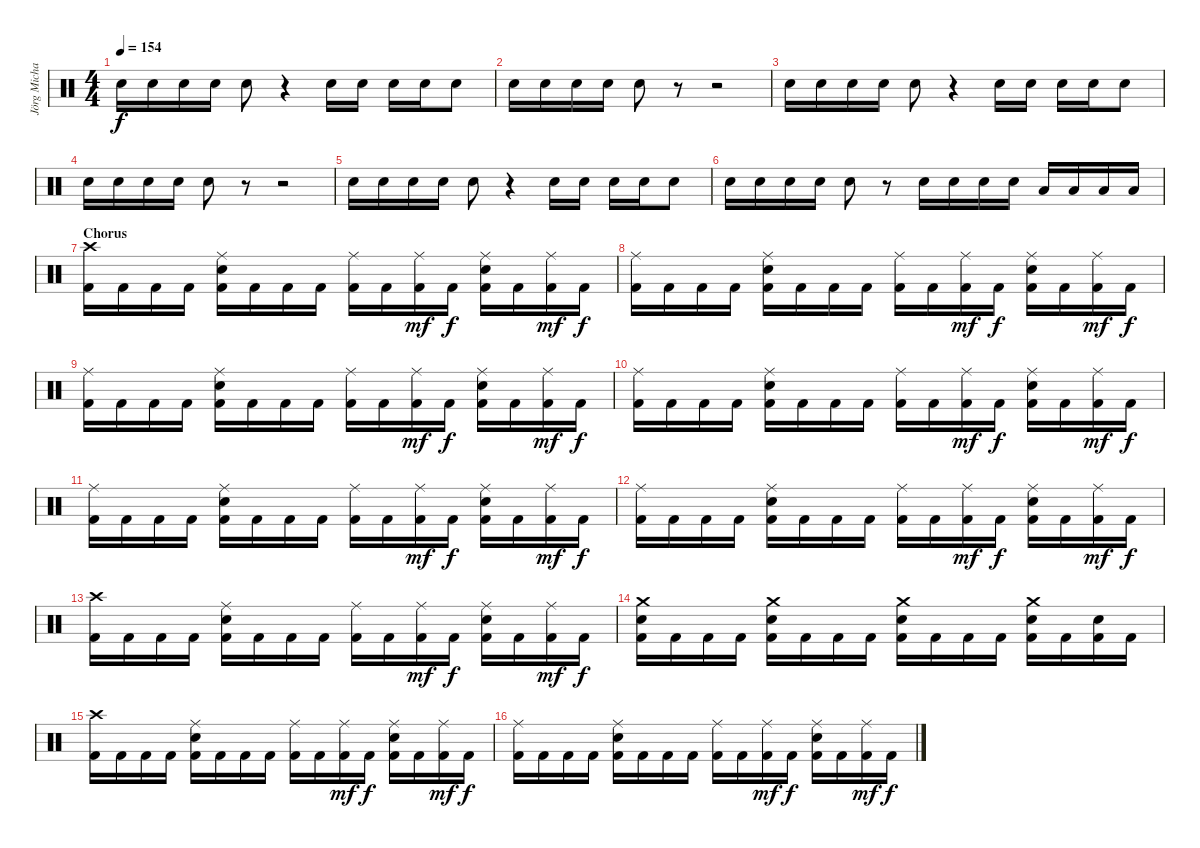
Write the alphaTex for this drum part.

\track ("Jörg Michael - Drums" "Jörg Micha") {instrument percussion}
\staff {score}
\articulation defaults
\ts (4 4)
\tempo 154
\clef neutral
\ks c "Electric Snare (hit)".16{dy f} "Electric Snare (hit)".16 "Electric Snare (hit)".16 "Electric Snare (hit)".16 "Electric Snare (hit)".8
r.4 "Electric Snare (hit)".16 "Electric Snare (hit)".16 "Electric Snare (hit)".16 "Electric Snare (hit)".16 "Electric Snare (hit)".8 |
"Electric Snare (hit)".16 "Electric Snare (hit)".16 "Electric Snare (hit)".16 "Electric Snare (hit)".16 "Electric Snare (hit)".8 r.8 r.2 |
"Electric Snare (hit)".16 "Electric Snare (hit)".16 "Electric Snare (hit)".16 "Electric Snare (hit)".16 "Electric Snare (hit)".8 r.4 "Electric Snare (hit)".16 "Electric Snare (hit)".16 "Electric Snare (hit)".16 "Electric Snare (hit)".16 "Electric Snare (hit)".8 |
"Electric Snare (hit)".16 "Electric Snare (hit)".16 "Electric Snare (hit)".16 "Electric Snare (hit)".16 "Electric Snare (hit)".8 r.8 r.2 |
"Electric Snare (hit)".16 "Electric Snare (hit)".16 "Electric Snare (hit)".16 "Electric Snare (hit)".16 "Electric Snare (hit)".8 r.4 "Electric Snare (hit)".16 "Electric Snare (hit)".16 "Electric Snare (hit)".16 "Electric Snare (hit)".16 "Electric Snare (hit)".8 |
"Electric Snare (hit)".16 "Electric Snare (hit)".16 "Electric Snare (hit)".16 "Electric Snare (hit)".16 "Electric Snare (hit)".8 r.8 "Electric Snare (hit)".16 "Electric Snare (hit)".16 "Electric Snare (hit)".16 "Electric Snare (hit)".16 "Low Tom (hit)".16 "Low Tom (hit)".16 "Low Tom (hit)".16 "Low Tom (hit)".16 |
\section ("" "Chorus")
("Crash high (hit)" "Kick (hit) 2").16 "Kick (hit) 2".16 "Kick (hit) 2".16 "Kick (hit) 2".16 ("Ride (middle)" "Electric Snare (hit)" "Kick (hit) 2").16 "Kick (hit) 2".16 "Kick (hit) 2".16 "Kick (hit) 2".16 ("Ride (middle)" "Kick (hit) 2").16 "Kick (hit) 2".16 ("Ride (middle)" "Kick (hit) 2").16{dy mf} "Kick (hit) 2".16{dy f} ("Ride (middle)" "Electric Snare (hit)" "Kick (hit) 2").16 "Kick (hit) 2".16 ("Ride (middle)" "Kick (hit) 2").16{dy mf} "Kick (hit) 2".16{dy f} |
("Ride (middle)" "Kick (hit) 2").16 "Kick (hit) 2".16 "Kick (hit) 2".16 "Kick (hit) 2".16 ("Ride (middle)" "Electric Snare (hit)" "Kick (hit) 2").16 "Kick (hit) 2".16 "Kick (hit) 2".16 "Kick (hit) 2".16 ("Ride (middle)" "Kick (hit) 2").16 "Kick (hit) 2".16 ("Ride (middle)" "Kick (hit) 2").16{dy mf} "Kick (hit) 2".16{dy f} ("Ride (middle)" "Electric Snare (hit)" "Kick (hit) 2").16 "Kick (hit) 2".16 ("Ride (middle)" "Kick (hit) 2").16{dy mf} "Kick (hit) 2".16{dy f} |
("Ride (middle)" "Kick (hit) 2").16 "Kick (hit) 2".16 "Kick (hit) 2".16 "Kick (hit) 2".16 ("Ride (middle)" "Electric Snare (hit)" "Kick (hit) 2").16 "Kick (hit) 2".16 "Kick (hit) 2".16 "Kick (hit) 2".16 ("Ride (middle)" "Kick (hit) 2").16 "Kick (hit) 2".16 ("Ride (middle)" "Kick (hit) 2").16{dy mf} "Kick (hit) 2".16{dy f} ("Ride (middle)" "Electric Snare (hit)" "Kick (hit) 2").16 "Kick (hit) 2".16 ("Ride (middle)" "Kick (hit) 2").16{dy mf} "Kick (hit) 2".16{dy f} |
("Ride (middle)" "Kick (hit) 2").16 "Kick (hit) 2".16 "Kick (hit) 2".16 "Kick (hit) 2".16 ("Ride (middle)" "Electric Snare (hit)" "Kick (hit) 2").16 "Kick (hit) 2".16 "Kick (hit) 2".16 "Kick (hit) 2".16 ("Ride (middle)" "Kick (hit) 2").16 "Kick (hit) 2".16 ("Ride (middle)" "Kick (hit) 2").16{dy mf} "Kick (hit) 2".16{dy f} ("Ride (middle)" "Electric Snare (hit)" "Kick (hit) 2").16 "Kick (hit) 2".16 ("Ride (middle)" "Kick (hit) 2").16{dy mf} "Kick (hit) 2".16{dy f} |
("Ride (middle)" "Kick (hit) 2").16 "Kick (hit) 2".16 "Kick (hit) 2".16 "Kick (hit) 2".16 ("Ride (middle)" "Electric Snare (hit)" "Kick (hit) 2").16 "Kick (hit) 2".16 "Kick (hit) 2".16 "Kick (hit) 2".16 ("Ride (middle)" "Kick (hit) 2").16 "Kick (hit) 2".16 ("Ride (middle)" "Kick (hit) 2").16{dy mf} "Kick (hit) 2".16{dy f} ("Ride (middle)" "Electric Snare (hit)" "Kick (hit) 2").16 "Kick (hit) 2".16 ("Ride (middle)" "Kick (hit) 2").16{dy mf} "Kick (hit) 2".16{dy f} |
("Ride (middle)" "Kick (hit) 2").16 "Kick (hit) 2".16 "Kick (hit) 2".16 "Kick (hit) 2".16 ("Ride (middle)" "Electric Snare (hit)" "Kick (hit) 2").16 "Kick (hit) 2".16 "Kick (hit) 2".16 "Kick (hit) 2".16 ("Ride (middle)" "Kick (hit) 2").16 "Kick (hit) 2".16 ("Ride (middle)" "Kick (hit) 2").16{dy mf} "Kick (hit) 2".16{dy f} ("Ride (middle)" "Electric Snare (hit)" "Kick (hit) 2").16 "Kick (hit) 2".16 ("Ride (middle)" "Kick (hit) 2").16{dy mf} "Kick (hit) 2".16{dy f} |
("Crash high (hit)" "Kick (hit) 2").16 "Kick (hit) 2".16 "Kick (hit) 2".16 "Kick (hit) 2".16 ("Ride (middle)" "Electric Snare (hit)" "Kick (hit) 2").16 "Kick (hit) 2".16 "Kick (hit) 2".16 "Kick (hit) 2".16 ("Ride (middle)" "Kick (hit) 2").16 "Kick (hit) 2".16 ("Ride (middle)" "Kick (hit) 2").16{dy mf} "Kick (hit) 2".16{dy f} ("Ride (middle)" "Electric Snare (hit)" "Kick (hit) 2").16 "Kick (hit) 2".16 ("Ride (middle)" "Kick (hit) 2").16{dy mf} "Kick (hit) 2".16{dy f} |
("Crash medium (hit)" "Electric Snare (hit)" "Kick (hit) 2").16 "Kick (hit) 2".16 "Kick (hit) 2".16 "Kick (hit) 2".16 ("Crash medium (hit)" "Electric Snare (hit)" "Kick (hit) 2").16 "Kick (hit) 2".16 "Kick (hit) 2".16 "Kick (hit) 2".16 ("Crash medium (hit)" "Electric Snare (hit)" "Kick (hit) 2").16 "Kick (hit) 2".16 "Kick (hit) 2".16 "Kick (hit) 2".16 ("Crash medium (hit)" "Electric Snare (hit)" "Kick (hit) 2").16 "Kick (hit) 2".16 ("Electric Snare (hit)" "Kick (hit) 2").16 "Kick (hit) 2".16 |
("Crash high (hit)" "Kick (hit) 2").16 "Kick (hit) 2".16 "Kick (hit) 2".16 "Kick (hit) 2".16 ("Ride (middle)" "Electric Snare (hit)" "Kick (hit) 2").16 "Kick (hit) 2".16 "Kick (hit) 2".16 "Kick (hit) 2".16 ("Ride (middle)" "Kick (hit) 2").16 "Kick (hit) 2".16 ("Ride (middle)" "Kick (hit) 2").16{dy mf} "Kick (hit) 2".16{dy f} ("Ride (middle)" "Electric Snare (hit)" "Kick (hit) 2").16 "Kick (hit) 2".16 ("Ride (middle)" "Kick (hit) 2").16{dy mf} "Kick (hit) 2".16{dy f} |
("Ride (middle)" "Kick (hit) 2").16 "Kick (hit) 2".16 "Kick (hit) 2".16 "Kick (hit) 2".16 ("Ride (middle)" "Electric Snare (hit)" "Kick (hit) 2").16 "Kick (hit) 2".16 "Kick (hit) 2".16 "Kick (hit) 2".16 ("Ride (middle)" "Kick (hit) 2").16 "Kick (hit) 2".16 ("Ride (middle)" "Kick (hit) 2").16{dy mf} "Kick (hit) 2".16{dy f} ("Ride (middle)" "Electric Snare (hit)" "Kick (hit) 2").16 "Kick (hit) 2".16 ("Ride (middle)" "Kick (hit) 2").16{dy mf} "Kick (hit) 2".16{dy f}
